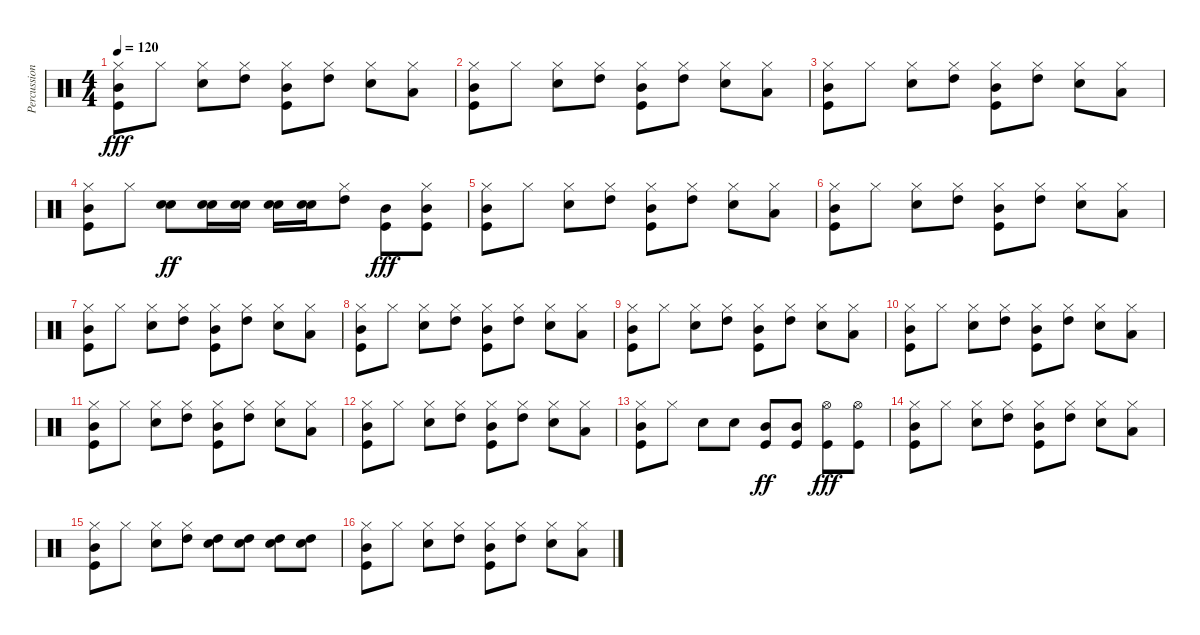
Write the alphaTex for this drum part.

\track ("Percussion" "Percussion") {instrument percussion}
\staff {score}
\articulation defaults
\ts (4 4)
\tempo 120
\clef neutral
\ks c
("Hi-Hat (closed)" "Mid Tom (hit)" "Kick (hit)").8{dy fff} "Hi-Hat (closed)".8 ("Hi-Hat (closed)" "Electric Snare (hit)").8 ("Hi-Hat (closed)" "High Tom (hit)").8 ("Hi-Hat (closed)" "Mid Tom (hit)" "Kick (hit)").8 ("Hi-Hat (closed)" "High Tom (hit)").8 ("Hi-Hat (closed)" "Electric Snare (hit)").8 ("Hi-Hat (closed)" "Low Tom (hit)").8 |
("Hi-Hat (closed)" "Mid Tom (hit)" "Kick (hit)").8 "Hi-Hat (closed)".8 ("Hi-Hat (closed)" "Electric Snare (hit)").8 ("Hi-Hat (closed)" "High Tom (hit)").8 ("Hi-Hat (closed)" "Mid Tom (hit)" "Kick (hit)").8 ("Hi-Hat (closed)" "High Tom (hit)").8 ("Hi-Hat (closed)" "Electric Snare (hit)").8 ("Hi-Hat (closed)" "Low Tom (hit)").8 |
("Hi-Hat (closed)" "Mid Tom (hit)" "Kick (hit)").8 "Hi-Hat (closed)".8 ("Hi-Hat (closed)" "Electric Snare (hit)").8 ("Hi-Hat (closed)" "High Tom (hit)").8 ("Hi-Hat (closed)" "Mid Tom (hit)" "Kick (hit)").8 ("Hi-Hat (closed)" "High Tom (hit)").8 ("Hi-Hat (closed)" "Electric Snare (hit)").8 ("Hi-Hat (closed)" "Low Tom (hit)").8 |
("Hi-Hat (closed)" "Mid Tom (hit)" "Kick (hit)").8 "Hi-Hat (closed)".8 ("Snare (hit) 2" "Electric Snare (hit)").8{dy ff volume 16} ("Snare (hit) 2" "Electric Snare (hit)").16 ("Snare (hit) 2" "Electric Snare (hit)").16 ("Snare (hit) 2" "Electric Snare (hit)").16 ("Snare (hit) 2" "Electric Snare (hit)").16 ("Hi-Hat (closed)" "High Tom (hit)").8 ("Mid Tom (hit)" "Kick (hit)").8{dy fff} ("Hi-Hat (closed)" "Mid Tom (hit)" "Kick (hit)").8 |
("Hi-Hat (closed)" "Mid Tom (hit)" "Kick (hit)").8{volume 12} "Hi-Hat (closed)".8 ("Hi-Hat (closed)" "Electric Snare (hit)").8 ("Hi-Hat (closed)" "High Tom (hit)").8 ("Hi-Hat (closed)" "Mid Tom (hit)" "Kick (hit)").8 ("Hi-Hat (closed)" "High Tom (hit)").8 ("Hi-Hat (closed)" "Electric Snare (hit)").8 ("Hi-Hat (closed)" "Low Tom (hit)").8 |
("Hi-Hat (closed)" "Mid Tom (hit)" "Kick (hit)").8 "Hi-Hat (closed)".8 ("Hi-Hat (closed)" "Electric Snare (hit)").8 ("Hi-Hat (closed)" "High Tom (hit)").8 ("Hi-Hat (closed)" "Mid Tom (hit)" "Kick (hit)").8 ("Hi-Hat (closed)" "High Tom (hit)").8 ("Hi-Hat (closed)" "Electric Snare (hit)").8 ("Hi-Hat (closed)" "Low Tom (hit)").8 |
("Hi-Hat (closed)" "Mid Tom (hit)" "Kick (hit)").8 "Hi-Hat (closed)".8 ("Hi-Hat (closed)" "Electric Snare (hit)").8 ("Hi-Hat (closed)" "High Tom (hit)").8 ("Hi-Hat (closed)" "Mid Tom (hit)" "Kick (hit)").8 ("Hi-Hat (closed)" "High Tom (hit)").8 ("Hi-Hat (closed)" "Electric Snare (hit)").8 ("Hi-Hat (closed)" "Low Tom (hit)").8 |
("Hi-Hat (closed)" "Mid Tom (hit)" "Kick (hit)").8 "Hi-Hat (closed)".8 ("Hi-Hat (closed)" "Electric Snare (hit)").8 ("Hi-Hat (closed)" "High Tom (hit)").8 ("Hi-Hat (closed)" "Mid Tom (hit)" "Kick (hit)").8 ("Hi-Hat (closed)" "High Tom (hit)").8 ("Hi-Hat (closed)" "Electric Snare (hit)").8 ("Hi-Hat (closed)" "Low Tom (hit)").8 |
("Hi-Hat (closed)" "Mid Tom (hit)" "Kick (hit)").8 "Hi-Hat (closed)".8 ("Hi-Hat (closed)" "Electric Snare (hit)").8 ("Hi-Hat (closed)" "High Tom (hit)").8 ("Hi-Hat (closed)" "Mid Tom (hit)" "Kick (hit)").8 ("Hi-Hat (closed)" "High Tom (hit)").8 ("Hi-Hat (closed)" "Electric Snare (hit)").8 ("Hi-Hat (closed)" "Low Tom (hit)").8 |
("Hi-Hat (closed)" "Mid Tom (hit)" "Kick (hit)").8 "Hi-Hat (closed)".8 ("Hi-Hat (closed)" "Electric Snare (hit)").8 ("Hi-Hat (closed)" "High Tom (hit)").8 ("Hi-Hat (closed)" "Mid Tom (hit)" "Kick (hit)").8 ("Hi-Hat (closed)" "High Tom (hit)").8 ("Hi-Hat (closed)" "Electric Snare (hit)").8 ("Hi-Hat (closed)" "Low Tom (hit)").8 |
("Hi-Hat (closed)" "Mid Tom (hit)" "Kick (hit)").8 "Hi-Hat (closed)".8 ("Hi-Hat (closed)" "Electric Snare (hit)").8 ("Hi-Hat (closed)" "High Tom (hit)").8 ("Hi-Hat (closed)" "Mid Tom (hit)" "Kick (hit)").8 ("Hi-Hat (closed)" "High Tom (hit)").8 ("Hi-Hat (closed)" "Electric Snare (hit)").8 ("Hi-Hat (closed)" "Low Tom (hit)").8 |
("Hi-Hat (closed)" "Mid Tom (hit)" "Kick (hit)").8 "Hi-Hat (closed)".8 ("Hi-Hat (closed)" "Electric Snare (hit)").8 ("Hi-Hat (closed)" "High Tom (hit)").8 ("Hi-Hat (closed)" "Mid Tom (hit)" "Kick (hit)").8 ("Hi-Hat (closed)" "High Tom (hit)").8 ("Hi-Hat (closed)" "Electric Snare (hit)").8 ("Hi-Hat (closed)" "Low Tom (hit)").8 |
("Hi-Hat (closed)" "Mid Tom (hit)" "Kick (hit)").8{volume 16} "Hi-Hat (closed)".8 "Electric Snare (hit)".8 "Electric Snare (hit)".8 ("Mid Tom (hit)" "Kick (hit)").8{dy ff} ("Mid Tom (hit)" "Kick (hit)").8 ("Hi-Hat (open)" "Kick (hit)").8{dy fff} ("Hi-Hat (open)" "Kick (hit)").8 |
("Hi-Hat (closed)" "Mid Tom (hit)" "Kick (hit)").8{volume 12} "Hi-Hat (closed)".8 ("Hi-Hat (closed)" "Electric Snare (hit)").8 ("Hi-Hat (closed)" "High Tom (hit)").8 ("Hi-Hat (closed)" "Mid Tom (hit)" "Kick (hit)").8 ("Hi-Hat (closed)" "High Tom (hit)").8 ("Hi-Hat (closed)" "Electric Snare (hit)").8 ("Hi-Hat (closed)" "Low Tom (hit)").8 |
("Hi-Hat (closed)" "Mid Tom (hit)" "Kick (hit)").8 "Hi-Hat (closed)".8 ("Hi-Hat (closed)" "Electric Snare (hit)").8 ("Hi-Hat (closed)" "High Tom (hit)").8 ("Electric Snare (hit)" "High Tom (hit)").8{volume 16} ("Electric Snare (hit)" "High Tom (hit)").8 ("Electric Snare (hit)" "High Tom (hit)").8 ("Electric Snare (hit)" "High Tom (hit)").8 |
("Hi-Hat (closed)" "Mid Tom (hit)" "Kick (hit)").8{volume 12} "Hi-Hat (closed)".8 ("Hi-Hat (closed)" "Electric Snare (hit)").8 ("Hi-Hat (closed)" "High Tom (hit)").8 ("Hi-Hat (closed)" "Mid Tom (hit)" "Kick (hit)").8 ("Hi-Hat (closed)" "High Tom (hit)").8 ("Hi-Hat (closed)" "Electric Snare (hit)").8 ("Hi-Hat (closed)" "Low Tom (hit)").8
